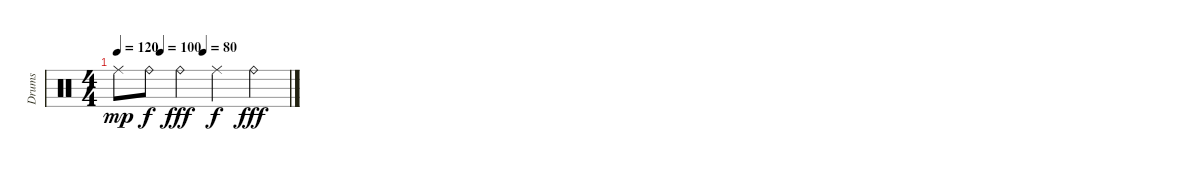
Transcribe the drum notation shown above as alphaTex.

\track ("Drums" "Drums") {instrument percussion}
\staff {score}
\articulation defaults
\ts (4 4)
\tempo 120
\tempo (100 0.25)
\tempo (80 0.5)
\clef neutral
\ks c "Ride (middle)".8{dy mp} "Ride (bell)".8{dy f} "Ride (bell)".4{dy fff} "Ride (middle)".4{dy f} "Ride (bell)".4{dy fff}
